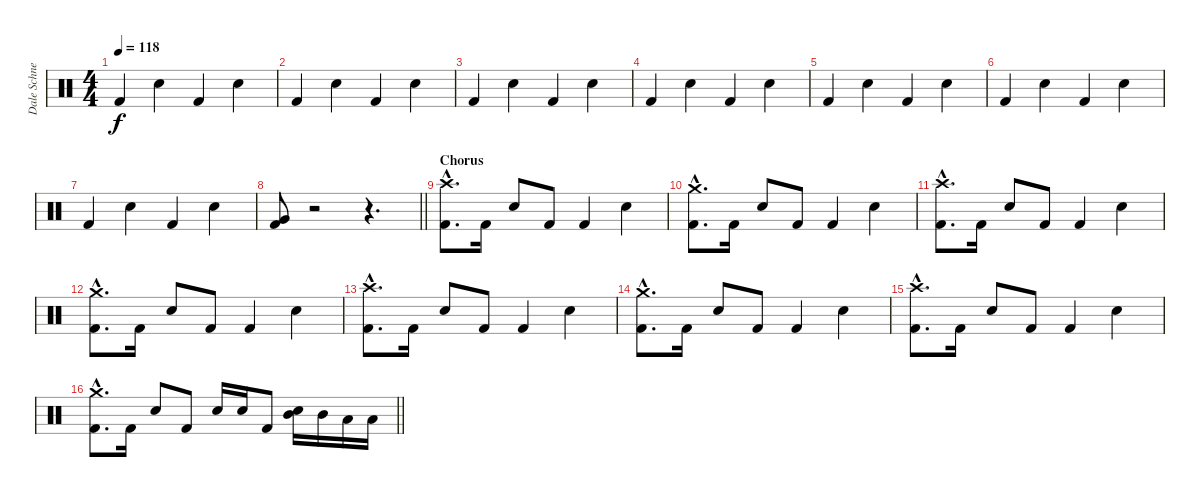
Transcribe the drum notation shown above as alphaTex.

\track ("Dale Schnettler (Drums)" "Dale Schne") {instrument percussion}
\staff {score}
\articulation defaults
\ts (4 4)
\tempo 118
\clef neutral
\ks c "Kick (hit) 2".4{dy f} "Electric Snare (hit)".4 "Kick (hit) 2".4 "Electric Snare (hit)".4
|
"Kick (hit) 2".4 "Electric Snare (hit)".4 "Kick (hit) 2".4 "Electric Snare (hit)".4 |
"Kick (hit) 2".4 "Electric Snare (hit)".4 "Kick (hit) 2".4 "Electric Snare (hit)".4 |
"Kick (hit) 2".4 "Electric Snare (hit)".4 "Kick (hit) 2".4 "Electric Snare (hit)".4 |
"Kick (hit) 2".4 "Electric Snare (hit)".4 "Kick (hit) 2".4 "Electric Snare (hit)".4 |
"Kick (hit) 2".4 "Electric Snare (hit)".4 "Kick (hit) 2".4 "Electric Snare (hit)".4 |
"Kick (hit) 2".4 "Electric Snare (hit)".4 "Kick (hit) 2".4 "Electric Snare (hit)".4 |
\barLineRight lightlight
("Kick (hit) 2" "Very Low Tom (hit)").8 r.2 r.4{d} |
\section ("" "Chorus")
("Crash high (hit)"{hac} "Kick (hit) 2"{hac}).8{d} "Kick (hit) 2".16 "Electric Snare (hit)".8 "Kick (hit) 2".8 "Kick (hit) 2".4 "Electric Snare (hit)".4 |
("Crash medium (hit)"{hac} "Kick (hit) 2"{hac}).8{d} "Kick (hit) 2".16 "Electric Snare (hit)".8 "Kick (hit) 2".8 "Kick (hit) 2".4 "Electric Snare (hit)".4 |
("Crash high (hit)"{hac} "Kick (hit) 2"{hac}).8{d} "Kick (hit) 2".16 "Electric Snare (hit)".8 "Kick (hit) 2".8 "Kick (hit) 2".4 "Electric Snare (hit)".4 |
("Crash medium (hit)"{hac} "Kick (hit) 2"{hac}).8{d} "Kick (hit) 2".16 "Electric Snare (hit)".8 "Kick (hit) 2".8 "Kick (hit) 2".4 "Electric Snare (hit)".4 |
("Crash high (hit)"{hac} "Kick (hit) 2"{hac}).8{d} "Kick (hit) 2".16 "Electric Snare (hit)".8 "Kick (hit) 2".8 "Kick (hit) 2".4 "Electric Snare (hit)".4 |
("Crash medium (hit)"{hac} "Kick (hit) 2"{hac}).8{d} "Kick (hit) 2".16 "Electric Snare (hit)".8 "Kick (hit) 2".8 "Kick (hit) 2".4 "Electric Snare (hit)".4 |
("Crash high (hit)"{hac} "Kick (hit) 2"{hac}).8{d} "Kick (hit) 2".16 "Electric Snare (hit)".8 "Kick (hit) 2".8 "Kick (hit) 2".4 "Electric Snare (hit)".4 |
\barLineRight lightlight
("Crash medium (hit)"{hac} "Kick (hit) 2"{hac}).8{d} "Kick (hit) 2".16 "Electric Snare (hit)".8 "Kick (hit) 2".8 "Electric Snare (hit)".16 "Electric Snare (hit)".16 "Kick (hit) 2".8 ("Electric Snare (hit)" "Mid Tom (hit)").16 "Mid Tom (hit)".16 "Low Tom (hit)".16 "Low Tom (hit)".16
